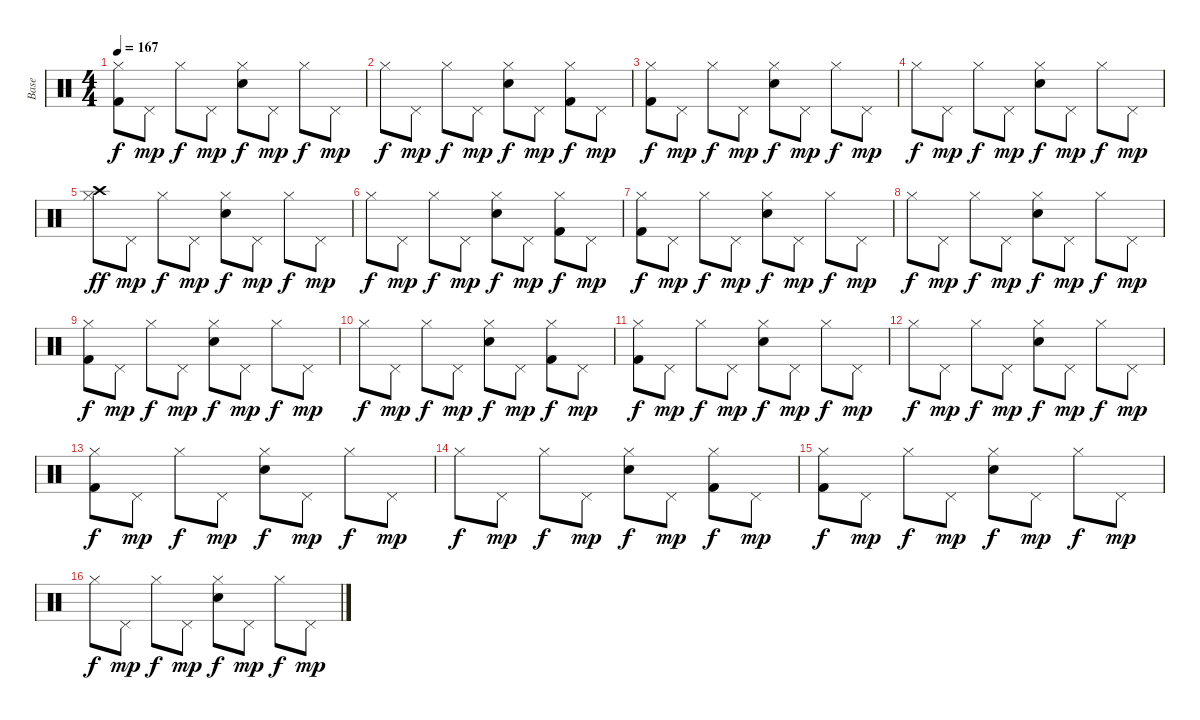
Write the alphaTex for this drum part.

\track ("Base" "Base") {instrument percussion}
\staff {score}
\articulation defaults
\ts (4 4)
\tempo 167
\clef neutral
\ks c
("Hi-Hat (closed)" "Kick (hit) 2").8{dy f} "Pedal Hi-Hat (hit)".8{dy mp} "Hi-Hat (closed)".8{dy f} "Pedal Hi-Hat (hit)".8{dy mp} ("Electric Snare (hit)" "Hi-Hat (closed)").8{dy f} "Pedal Hi-Hat (hit)".8{dy mp} "Hi-Hat (closed)".8{dy f} "Pedal Hi-Hat (hit)".8{dy mp} |
"Hi-Hat (closed)".8{dy f} "Pedal Hi-Hat (hit)".8{dy mp} "Hi-Hat (closed)".8{dy f} "Pedal Hi-Hat (hit)".8{dy mp} ("Electric Snare (hit)" "Hi-Hat (closed)").8{dy f} "Pedal Hi-Hat (hit)".8{dy mp} ("Hi-Hat (closed)" "Kick (hit) 2").8{dy f} "Pedal Hi-Hat (hit)".8{dy mp} |
("Hi-Hat (closed)" "Kick (hit) 2").8{dy f} "Pedal Hi-Hat (hit)".8{dy mp} "Hi-Hat (closed)".8{dy f} "Pedal Hi-Hat (hit)".8{dy mp} ("Electric Snare (hit)" "Hi-Hat (closed)").8{dy f} "Pedal Hi-Hat (hit)".8{dy mp} "Hi-Hat (closed)".8{dy f} "Pedal Hi-Hat (hit)".8{dy mp} |
"Hi-Hat (closed)".8{dy f} "Pedal Hi-Hat (hit)".8{dy mp} "Hi-Hat (closed)".8{dy f} "Pedal Hi-Hat (hit)".8{dy mp} ("Electric Snare (hit)" "Hi-Hat (closed)").8{dy f} "Pedal Hi-Hat (hit)".8{dy mp} "Hi-Hat (closed)".8{dy f} "Pedal Hi-Hat (hit)".8{dy mp} |
("Hi-Hat (closed)" "Crash high (hit)").8{dy ff} "Pedal Hi-Hat (hit)".8{dy mp} "Hi-Hat (closed)".8{dy f} "Pedal Hi-Hat (hit)".8{dy mp} ("Electric Snare (hit)" "Hi-Hat (closed)").8{dy f} "Pedal Hi-Hat (hit)".8{dy mp} "Hi-Hat (closed)".8{dy f} "Pedal Hi-Hat (hit)".8{dy mp} |
"Hi-Hat (closed)".8{dy f} "Pedal Hi-Hat (hit)".8{dy mp} "Hi-Hat (closed)".8{dy f} "Pedal Hi-Hat (hit)".8{dy mp} ("Electric Snare (hit)" "Hi-Hat (closed)").8{dy f} "Pedal Hi-Hat (hit)".8{dy mp} ("Hi-Hat (closed)" "Kick (hit) 2").8{dy f} "Pedal Hi-Hat (hit)".8{dy mp} |
("Hi-Hat (closed)" "Kick (hit) 2").8{dy f} "Pedal Hi-Hat (hit)".8{dy mp} "Hi-Hat (closed)".8{dy f} "Pedal Hi-Hat (hit)".8{dy mp} ("Electric Snare (hit)" "Hi-Hat (closed)").8{dy f} "Pedal Hi-Hat (hit)".8{dy mp} "Hi-Hat (closed)".8{dy f} "Pedal Hi-Hat (hit)".8{dy mp} |
"Hi-Hat (closed)".8{dy f} "Pedal Hi-Hat (hit)".8{dy mp} "Hi-Hat (closed)".8{dy f} "Pedal Hi-Hat (hit)".8{dy mp} ("Electric Snare (hit)" "Hi-Hat (closed)").8{dy f} "Pedal Hi-Hat (hit)".8{dy mp} "Hi-Hat (closed)".8{dy f} "Pedal Hi-Hat (hit)".8{dy mp} |
("Hi-Hat (closed)" "Kick (hit) 2").8{dy f} "Pedal Hi-Hat (hit)".8{dy mp} "Hi-Hat (closed)".8{dy f} "Pedal Hi-Hat (hit)".8{dy mp} ("Electric Snare (hit)" "Hi-Hat (closed)").8{dy f} "Pedal Hi-Hat (hit)".8{dy mp} "Hi-Hat (closed)".8{dy f} "Pedal Hi-Hat (hit)".8{dy mp} |
"Hi-Hat (closed)".8{dy f} "Pedal Hi-Hat (hit)".8{dy mp} "Hi-Hat (closed)".8{dy f} "Pedal Hi-Hat (hit)".8{dy mp} ("Electric Snare (hit)" "Hi-Hat (closed)").8{dy f} "Pedal Hi-Hat (hit)".8{dy mp} ("Hi-Hat (closed)" "Kick (hit) 2").8{dy f} "Pedal Hi-Hat (hit)".8{dy mp} |
("Hi-Hat (closed)" "Kick (hit) 2").8{dy f} "Pedal Hi-Hat (hit)".8{dy mp} "Hi-Hat (closed)".8{dy f} "Pedal Hi-Hat (hit)".8{dy mp} ("Electric Snare (hit)" "Hi-Hat (closed)").8{dy f} "Pedal Hi-Hat (hit)".8{dy mp} "Hi-Hat (closed)".8{dy f} "Pedal Hi-Hat (hit)".8{dy mp} |
"Hi-Hat (closed)".8{dy f} "Pedal Hi-Hat (hit)".8{dy mp} "Hi-Hat (closed)".8{dy f} "Pedal Hi-Hat (hit)".8{dy mp} ("Electric Snare (hit)" "Hi-Hat (closed)").8{dy f} "Pedal Hi-Hat (hit)".8{dy mp} "Hi-Hat (closed)".8{dy f} "Pedal Hi-Hat (hit)".8{dy mp} |
("Hi-Hat (closed)" "Kick (hit) 2").8{dy f} "Pedal Hi-Hat (hit)".8{dy mp} "Hi-Hat (closed)".8{dy f} "Pedal Hi-Hat (hit)".8{dy mp} ("Electric Snare (hit)" "Hi-Hat (closed)").8{dy f} "Pedal Hi-Hat (hit)".8{dy mp} "Hi-Hat (closed)".8{dy f} "Pedal Hi-Hat (hit)".8{dy mp} |
"Hi-Hat (closed)".8{dy f} "Pedal Hi-Hat (hit)".8{dy mp} "Hi-Hat (closed)".8{dy f} "Pedal Hi-Hat (hit)".8{dy mp} ("Electric Snare (hit)" "Hi-Hat (closed)").8{dy f} "Pedal Hi-Hat (hit)".8{dy mp} ("Hi-Hat (closed)" "Kick (hit) 2").8{dy f} "Pedal Hi-Hat (hit)".8{dy mp} |
("Hi-Hat (closed)" "Kick (hit) 2").8{dy f} "Pedal Hi-Hat (hit)".8{dy mp} "Hi-Hat (closed)".8{dy f} "Pedal Hi-Hat (hit)".8{dy mp} ("Electric Snare (hit)" "Hi-Hat (closed)").8{dy f} "Pedal Hi-Hat (hit)".8{dy mp} "Hi-Hat (closed)".8{dy f} "Pedal Hi-Hat (hit)".8{dy mp} |
"Hi-Hat (closed)".8{dy f} "Pedal Hi-Hat (hit)".8{dy mp} "Hi-Hat (closed)".8{dy f} "Pedal Hi-Hat (hit)".8{dy mp} ("Electric Snare (hit)" "Hi-Hat (closed)").8{dy f} "Pedal Hi-Hat (hit)".8{dy mp} "Hi-Hat (closed)".8{dy f} "Pedal Hi-Hat (hit)".8{dy mp}
